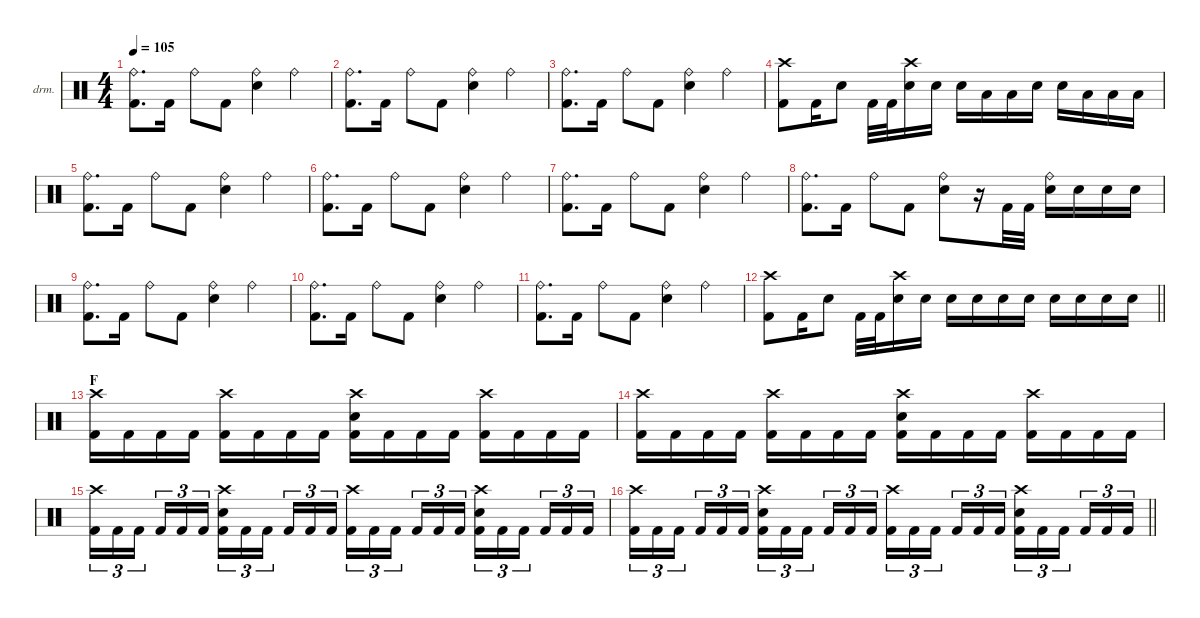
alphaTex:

\defaultSystemsLayout 4
\hideDynamics
\bracketExtendMode nobrackets
\firstSystemTrackNameOrientation horizontal
\otherSystemsTrackNameOrientation horizontal
\track ("Percussions" "drm.") {instrument percussion}
\staff {score}
\articulation defaults
\ts (4 4)
\tempo 105
\clef neutral
\ks c
("Ride (bell)" "Kick (hit) 2").8{d dy fff} "Kick (hit) 2".16 "Ride (bell)".8 "Kick (hit) 2".8 ("Ride (bell)" "Snare (hit) 2").4 "Ride (bell)".4 |
("Ride (bell)" "Kick (hit) 2").8{d} "Kick (hit) 2".16 "Ride (bell)".8 "Kick (hit) 2".8 ("Ride (bell)" "Snare (hit) 2").4 "Ride (bell)".4 |
("Ride (bell)" "Kick (hit) 2").8{d} "Kick (hit) 2".16 "Ride (bell)".8 "Kick (hit) 2".8 ("Ride (bell)" "Snare (hit) 2").4 "Ride (bell)".4 |
("Crash high (hit)" "Kick (hit) 2").8 "Kick (hit) 2".16 "Snare (hit) 2".8 "Kick (hit) 2".32 "Kick (hit) 2".32 ("Crash high (hit)" "Snare (hit) 2").16 "Snare (hit) 2".16 "Snare (hit) 2".16 "Low Floor Tom (hit)".16 "Low Floor Tom (hit)".16 "Snare (hit) 2".16 "Snare (hit) 2".16 "Low Tom (hit)".16 "Low Tom (hit)".16 "Low Floor Tom (hit)".16 |
("Ride (bell)" "Kick (hit) 2").8{d} "Kick (hit) 2".16 "Ride (bell)".8 "Kick (hit) 2".8 ("Ride (bell)" "Snare (hit) 2").4 "Ride (bell)".4 |
("Ride (bell)" "Kick (hit) 2").8{d} "Kick (hit) 2".16 "Ride (bell)".8 "Kick (hit) 2".8 ("Ride (bell)" "Snare (hit) 2").4 "Ride (bell)".4 |
("Ride (bell)" "Kick (hit) 2").8{d} "Kick (hit) 2".16 "Ride (bell)".8 "Kick (hit) 2".8 ("Ride (bell)" "Snare (hit) 2").4 "Ride (bell)".4 |
("Ride (bell)" "Kick (hit) 2").8{d} "Kick (hit) 2".16 "Ride (bell)".8 "Kick (hit) 2".8 ("Ride (bell)" "Snare (hit) 2").8 r.16 "Kick (hit) 2".32 "Kick (hit) 2".32 ("Ride (bell)" "Snare (hit) 2").16 "Snare (hit) 2".16 "Snare (hit) 2".16 "Snare (hit) 2".16 |
("Ride (bell)" "Kick (hit) 2").8{d} "Kick (hit) 2".16 "Ride (bell)".8 "Kick (hit) 2".8 ("Ride (bell)" "Snare (hit) 2").4 "Ride (bell)".4 |
("Ride (bell)" "Kick (hit) 2").8{d} "Kick (hit) 2".16 "Ride (bell)".8 "Kick (hit) 2".8 ("Ride (bell)" "Snare (hit) 2").4 "Ride (bell)".4 |
("Ride (bell)" "Kick (hit) 2").8{d} "Kick (hit) 2".16 "Ride (bell)".8 "Kick (hit) 2".8 ("Ride (bell)" "Snare (hit) 2").4 "Ride (bell)".4 |
\barLineRight lightlight
("Crash high (hit)" "Kick (hit) 2").8 "Kick (hit) 2".16 "Snare (hit) 2".8 "Kick (hit) 2".32 "Kick (hit) 2".32 ("Crash high (hit)" "Snare (hit) 2").16 "Snare (hit) 2".16 "Snare (hit) 2".16 "Snare (hit) 2".16 "Snare (hit) 2".16 "Snare (hit) 2".16 "Snare (hit) 2".16 "Snare (hit) 2".16 "Snare (hit) 2".16 "Snare (hit) 2".16 |
\section ("" "F")
("Crash high (hit)" "Kick (hit) 2").16 "Kick (hit) 2".16 "Kick (hit) 2".16 "Kick (hit) 2".16 ("Crash high (hit)" "Kick (hit) 2").16 "Kick (hit) 2".16 "Kick (hit) 2".16 "Kick (hit) 2".16 ("Crash high (hit)" "Snare (hit) 2" "Kick (hit) 2").16 "Kick (hit) 2".16 "Kick (hit) 2".16 "Kick (hit) 2".16 ("Crash high (hit)" "Kick (hit) 2").16 "Kick (hit) 2".16 "Kick (hit) 2".16 "Kick (hit) 2".16 |
("Crash high (hit)" "Kick (hit) 2").16 "Kick (hit) 2".16 "Kick (hit) 2".16 "Kick (hit) 2".16 ("Crash high (hit)" "Kick (hit) 2").16 "Kick (hit) 2".16 "Kick (hit) 2".16 "Kick (hit) 2".16 ("Crash high (hit)" "Snare (hit) 2" "Kick (hit) 2").16 "Kick (hit) 2".16 "Kick (hit) 2".16 "Kick (hit) 2".16 ("Crash high (hit)" "Kick (hit) 2").16 "Kick (hit) 2".16 "Kick (hit) 2".16 "Kick (hit) 2".16 |
("Crash high (hit)" "Kick (hit) 2").16{tu (3 2)} "Kick (hit) 2".16{tu (3 2)} "Kick (hit) 2".16{tu (3 2)} "Kick (hit) 2".16{tu (3 2)} "Kick (hit) 2".16{tu (3 2)} "Kick (hit) 2".16{tu (3 2)} ("Crash high (hit)" "Snare (hit) 2" "Kick (hit) 2").16{tu (3 2)} "Kick (hit) 2".16{tu (3 2)} "Kick (hit) 2".16{tu (3 2)} "Kick (hit) 2".16{tu (3 2)} "Kick (hit) 2".16{tu (3 2)} "Kick (hit) 2".16{tu (3 2)} ("Crash high (hit)" "Kick (hit) 2").16{tu (3 2)} "Kick (hit) 2".16{tu (3 2)} "Kick (hit) 2".16{tu (3 2)} "Kick (hit) 2".16{tu (3 2)} "Kick (hit) 2".16{tu (3 2)} "Kick (hit) 2".16{tu (3 2)} ("Crash high (hit)" "Snare (hit) 2" "Kick (hit) 2").16{tu (3 2)} "Kick (hit) 2".16{tu (3 2)} "Kick (hit) 2".16{tu (3 2)} "Kick (hit) 2".16{tu (3 2)} "Kick (hit) 2".16{tu (3 2)} "Kick (hit) 2".16{tu (3 2)} |
\barLineRight lightlight
("Crash high (hit)" "Kick (hit) 2").16{tu (3 2)} "Kick (hit) 2".16{tu (3 2)} "Kick (hit) 2".16{tu (3 2)} "Kick (hit) 2".16{tu (3 2)} "Kick (hit) 2".16{tu (3 2)} "Kick (hit) 2".16{tu (3 2)} ("Crash high (hit)" "Snare (hit) 2" "Kick (hit) 2").16{tu (3 2)} "Kick (hit) 2".16{tu (3 2)} "Kick (hit) 2".16{tu (3 2)} "Kick (hit) 2".16{tu (3 2)} "Kick (hit) 2".16{tu (3 2)} "Kick (hit) 2".16{tu (3 2)} ("Crash high (hit)" "Kick (hit) 2").16{tu (3 2)} "Kick (hit) 2".16{tu (3 2)} "Kick (hit) 2".16{tu (3 2)} "Kick (hit) 2".16{tu (3 2)} "Kick (hit) 2".16{tu (3 2)} "Kick (hit) 2".16{tu (3 2)} ("Crash high (hit)" "Snare (hit) 2" "Kick (hit) 2").16{tu (3 2)} "Kick (hit) 2".16{tu (3 2)} "Kick (hit) 2".16{tu (3 2)} "Kick (hit) 2".16{tu (3 2)} "Kick (hit) 2".16{tu (3 2)} "Kick (hit) 2".16{tu (3 2)}
